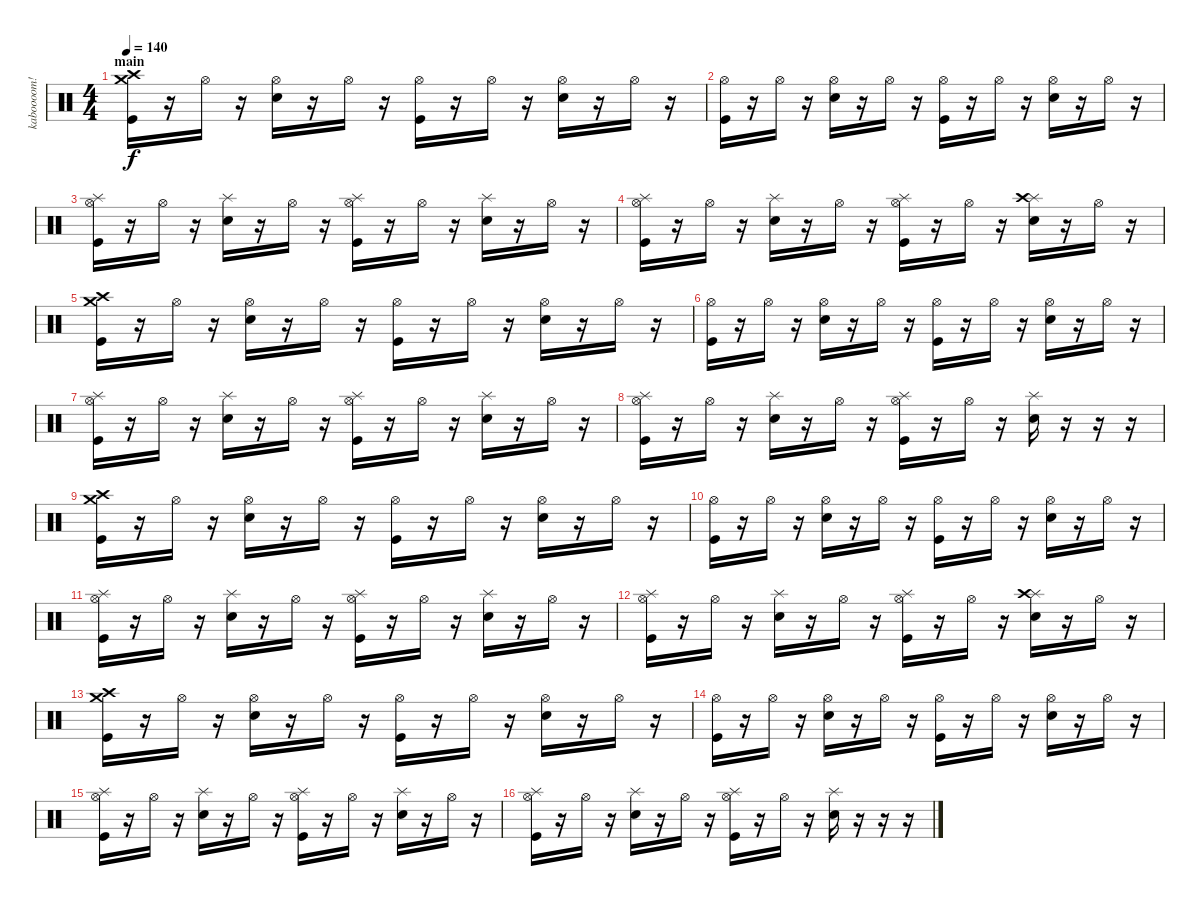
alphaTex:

\track ("kaboooom!" "kaboooom!") {instrument percussion}
\staff {score}
\articulation defaults
\ts (4 4)
\section ("" "main")
\tempo 140
\clef neutral
\ks c
("Crash high (hit)" "Crash medium (hit)" "Kick (hit)").16{dy f} r.16 "Hi-Hat (open)".16 r.16 ("Hi-Hat (open)" "Electric Snare (hit)").16 r.16 "Hi-Hat (open)".16 r.16 ("Hi-Hat (open)" "Kick (hit)").16 r.16 "Hi-Hat (open)".16 r.16 ("Hi-Hat (open)" "Electric Snare (hit)").16 r.16 "Hi-Hat (open)".16 r.16 |
("Hi-Hat (open)" "Kick (hit)").16 r.16 "Hi-Hat (open)".16 r.16 ("Hi-Hat (open)" "Electric Snare (hit)").16 r.16 "Hi-Hat (open)".16 r.16 ("Hi-Hat (open)" "Kick (hit)").16 r.16 "Hi-Hat (open)".16 r.16 ("Hi-Hat (open)" "Electric Snare (hit)").16 r.16 "Hi-Hat (open)".16 r.16 |
("Splash (hit)" "Hi-Hat (open)" "Kick (hit)").16 r.16 "Hi-Hat (open)".16 r.16 ("Splash (hit)" "Electric Snare (hit)").16 r.16 "Hi-Hat (open)".16 r.16 ("Splash (hit)" "Hi-Hat (open)" "Kick (hit)").16 r.16 "Hi-Hat (open)".16 r.16 ("Splash (hit)" "Electric Snare (hit)").16 r.16 "Hi-Hat (open)".16 r.16 |
("Splash (hit)" "Hi-Hat (open)" "Kick (hit)").16 r.16 "Hi-Hat (open)".16 r.16 ("Splash (hit)" "Electric Snare (hit)").16 r.16 "Hi-Hat (open)".16 r.16 ("Splash (hit)" "Hi-Hat (open)" "Kick (hit)").16 r.16 "Hi-Hat (open)".16 r.16 ("Splash (hit)" "Crash high (hit)" "Electric Snare (hit)").16 r.16 "Hi-Hat (open)".16 r.16 |
("Crash high (hit)" "Crash medium (hit)" "Kick (hit)").16 r.16 "Hi-Hat (open)".16 r.16 ("Hi-Hat (open)" "Electric Snare (hit)").16 r.16 "Hi-Hat (open)".16 r.16 ("Hi-Hat (open)" "Kick (hit)").16 r.16 "Hi-Hat (open)".16 r.16 ("Hi-Hat (open)" "Electric Snare (hit)").16 r.16 "Hi-Hat (open)".16 r.16 |
("Hi-Hat (open)" "Kick (hit)").16 r.16 "Hi-Hat (open)".16 r.16 ("Hi-Hat (open)" "Electric Snare (hit)").16 r.16 "Hi-Hat (open)".16 r.16 ("Hi-Hat (open)" "Kick (hit)").16 r.16 "Hi-Hat (open)".16 r.16 ("Hi-Hat (open)" "Electric Snare (hit)").16 r.16 "Hi-Hat (open)".16 r.16 |
("Splash (hit)" "Hi-Hat (open)" "Kick (hit)").16 r.16 "Hi-Hat (open)".16 r.16 ("Splash (hit)" "Electric Snare (hit)").16 r.16 "Hi-Hat (open)".16 r.16 ("Splash (hit)" "Hi-Hat (open)" "Kick (hit)").16 r.16 "Hi-Hat (open)".16 r.16 ("Splash (hit)" "Electric Snare (hit)").16 r.16 "Hi-Hat (open)".16 r.16 |
("Splash (hit)" "Hi-Hat (open)" "Kick (hit)").16 r.16 "Hi-Hat (open)".16 r.16 ("Splash (hit)" "Electric Snare (hit)").16 r.16 "Hi-Hat (open)".16 r.16 ("Splash (hit)" "Hi-Hat (open)" "Kick (hit)").16 r.16 "Hi-Hat (open)".16 r.16 ("Splash (hit)" "Electric Snare (hit)").16 r.16 r.16 r.16 |
("Crash high (hit)" "Crash medium (hit)" "Kick (hit)").16 r.16 "Hi-Hat (open)".16 r.16 ("Hi-Hat (open)" "Electric Snare (hit)").16 r.16 "Hi-Hat (open)".16 r.16 ("Hi-Hat (open)" "Kick (hit)").16 r.16 "Hi-Hat (open)".16 r.16 ("Hi-Hat (open)" "Electric Snare (hit)").16 r.16 "Hi-Hat (open)".16 r.16 |
("Hi-Hat (open)" "Kick (hit)").16 r.16 "Hi-Hat (open)".16 r.16 ("Hi-Hat (open)" "Electric Snare (hit)").16 r.16 "Hi-Hat (open)".16 r.16 ("Hi-Hat (open)" "Kick (hit)").16 r.16 "Hi-Hat (open)".16 r.16 ("Hi-Hat (open)" "Electric Snare (hit)").16 r.16 "Hi-Hat (open)".16 r.16 |
("Splash (hit)" "Hi-Hat (open)" "Kick (hit)").16 r.16 "Hi-Hat (open)".16 r.16 ("Splash (hit)" "Electric Snare (hit)").16 r.16 "Hi-Hat (open)".16 r.16 ("Splash (hit)" "Hi-Hat (open)" "Kick (hit)").16 r.16 "Hi-Hat (open)".16 r.16 ("Splash (hit)" "Electric Snare (hit)").16 r.16 "Hi-Hat (open)".16 r.16 |
("Splash (hit)" "Hi-Hat (open)" "Kick (hit)").16 r.16 "Hi-Hat (open)".16 r.16 ("Splash (hit)" "Electric Snare (hit)").16 r.16 "Hi-Hat (open)".16 r.16 ("Splash (hit)" "Hi-Hat (open)" "Kick (hit)").16 r.16 "Hi-Hat (open)".16 r.16 ("Splash (hit)" "Crash high (hit)" "Electric Snare (hit)").16 r.16 "Hi-Hat (open)".16 r.16 |
("Crash high (hit)" "Crash medium (hit)" "Kick (hit)").16 r.16 "Hi-Hat (open)".16 r.16 ("Hi-Hat (open)" "Electric Snare (hit)").16 r.16 "Hi-Hat (open)".16 r.16 ("Hi-Hat (open)" "Kick (hit)").16 r.16 "Hi-Hat (open)".16 r.16 ("Hi-Hat (open)" "Electric Snare (hit)").16 r.16 "Hi-Hat (open)".16 r.16 |
("Hi-Hat (open)" "Kick (hit)").16 r.16 "Hi-Hat (open)".16 r.16 ("Hi-Hat (open)" "Electric Snare (hit)").16 r.16 "Hi-Hat (open)".16 r.16 ("Hi-Hat (open)" "Kick (hit)").16 r.16 "Hi-Hat (open)".16 r.16 ("Hi-Hat (open)" "Electric Snare (hit)").16 r.16 "Hi-Hat (open)".16 r.16 |
("Splash (hit)" "Hi-Hat (open)" "Kick (hit)").16 r.16 "Hi-Hat (open)".16 r.16 ("Splash (hit)" "Electric Snare (hit)").16 r.16 "Hi-Hat (open)".16 r.16 ("Splash (hit)" "Hi-Hat (open)" "Kick (hit)").16 r.16 "Hi-Hat (open)".16 r.16 ("Splash (hit)" "Electric Snare (hit)").16 r.16 "Hi-Hat (open)".16 r.16 |
("Splash (hit)" "Hi-Hat (open)" "Kick (hit)").16 r.16 "Hi-Hat (open)".16 r.16 ("Splash (hit)" "Electric Snare (hit)").16 r.16 "Hi-Hat (open)".16 r.16 ("Splash (hit)" "Hi-Hat (open)" "Kick (hit)").16 r.16 "Hi-Hat (open)".16 r.16 ("Splash (hit)" "Electric Snare (hit)").16 r.16 r.16 r.16
